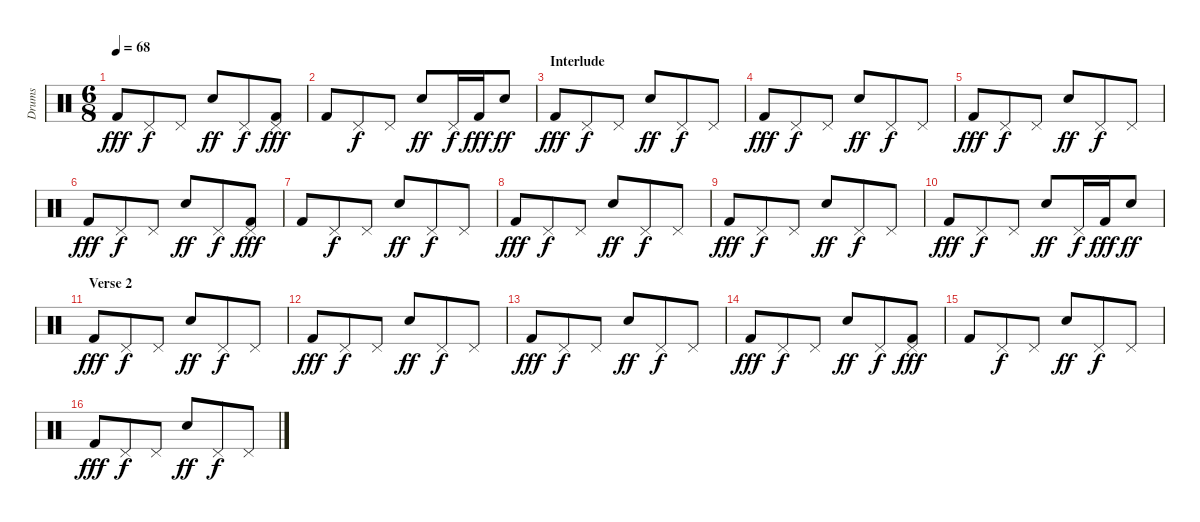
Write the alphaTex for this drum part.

\track ("Drums" "Drums") {instrument percussion}
\staff {score}
\articulation defaults
\ts (6 8)
\tempo 68
\clef neutral
\ks c "Kick (hit) 2".8{dy fff} "Pedal Hi-Hat (hit)".8{dy f} "Pedal Hi-Hat (hit)".8 "Snare (hit) 2".8{dy ff} "Pedal Hi-Hat (hit)".8{dy f}
("Pedal Hi-Hat (hit)" "Kick (hit) 2").8{dy fff} |
"Kick (hit) 2".8 "Pedal Hi-Hat (hit)".8{dy f} "Pedal Hi-Hat (hit)".8 "Snare (hit) 2".8{dy ff} "Pedal Hi-Hat (hit)".16{dy f} "Kick (hit) 2".16{dy fff} "Snare (hit) 2".8{dy ff} |
\section ("" "Interlude")
"Kick (hit) 2".8{dy fff} "Pedal Hi-Hat (hit)".8{dy f} "Pedal Hi-Hat (hit)".8 "Snare (hit) 2".8{dy ff} "Pedal Hi-Hat (hit)".8{dy f} "Pedal Hi-Hat (hit)".8 |
"Kick (hit) 2".8{dy fff} "Pedal Hi-Hat (hit)".8{dy f} "Pedal Hi-Hat (hit)".8 "Snare (hit) 2".8{dy ff} "Pedal Hi-Hat (hit)".8{dy f} "Pedal Hi-Hat (hit)".8 |
"Kick (hit) 2".8{dy fff} "Pedal Hi-Hat (hit)".8{dy f} "Pedal Hi-Hat (hit)".8 "Snare (hit) 2".8{dy ff} "Pedal Hi-Hat (hit)".8{dy f} "Pedal Hi-Hat (hit)".8 |
"Kick (hit) 2".8{dy fff} "Pedal Hi-Hat (hit)".8{dy f} "Pedal Hi-Hat (hit)".8 "Snare (hit) 2".8{dy ff} "Pedal Hi-Hat (hit)".8{dy f} ("Pedal Hi-Hat (hit)" "Kick (hit) 2").8{dy fff} |
"Kick (hit) 2".8 "Pedal Hi-Hat (hit)".8{dy f} "Pedal Hi-Hat (hit)".8 "Snare (hit) 2".8{dy ff} "Pedal Hi-Hat (hit)".8{dy f} "Pedal Hi-Hat (hit)".8 |
"Kick (hit) 2".8{dy fff} "Pedal Hi-Hat (hit)".8{dy f} "Pedal Hi-Hat (hit)".8 "Snare (hit) 2".8{dy ff} "Pedal Hi-Hat (hit)".8{dy f} "Pedal Hi-Hat (hit)".8 |
"Kick (hit) 2".8{dy fff} "Pedal Hi-Hat (hit)".8{dy f} "Pedal Hi-Hat (hit)".8 "Snare (hit) 2".8{dy ff} "Pedal Hi-Hat (hit)".8{dy f} "Pedal Hi-Hat (hit)".8 |
"Kick (hit) 2".8{dy fff} "Pedal Hi-Hat (hit)".8{dy f} "Pedal Hi-Hat (hit)".8 "Snare (hit) 2".8{dy ff} "Pedal Hi-Hat (hit)".16{dy f} "Kick (hit) 2".16{dy fff} "Snare (hit) 2".8{dy ff} |
\section ("" "Verse 2")
"Kick (hit) 2".8{dy fff} "Pedal Hi-Hat (hit)".8{dy f} "Pedal Hi-Hat (hit)".8 "Snare (hit) 2".8{dy ff} "Pedal Hi-Hat (hit)".8{dy f} "Pedal Hi-Hat (hit)".8 |
"Kick (hit) 2".8{dy fff} "Pedal Hi-Hat (hit)".8{dy f} "Pedal Hi-Hat (hit)".8 "Snare (hit) 2".8{dy ff} "Pedal Hi-Hat (hit)".8{dy f} "Pedal Hi-Hat (hit)".8 |
"Kick (hit) 2".8{dy fff} "Pedal Hi-Hat (hit)".8{dy f} "Pedal Hi-Hat (hit)".8 "Snare (hit) 2".8{dy ff} "Pedal Hi-Hat (hit)".8{dy f} "Pedal Hi-Hat (hit)".8 |
"Kick (hit) 2".8{dy fff} "Pedal Hi-Hat (hit)".8{dy f} "Pedal Hi-Hat (hit)".8 "Snare (hit) 2".8{dy ff} "Pedal Hi-Hat (hit)".8{dy f} ("Pedal Hi-Hat (hit)" "Kick (hit) 2").8{dy fff} |
"Kick (hit) 2".8 "Pedal Hi-Hat (hit)".8{dy f} "Pedal Hi-Hat (hit)".8 "Snare (hit) 2".8{dy ff} "Pedal Hi-Hat (hit)".8{dy f} "Pedal Hi-Hat (hit)".8 |
"Kick (hit) 2".8{dy fff} "Pedal Hi-Hat (hit)".8{dy f} "Pedal Hi-Hat (hit)".8 "Snare (hit) 2".8{dy ff} "Pedal Hi-Hat (hit)".8{dy f} "Pedal Hi-Hat (hit)".8
